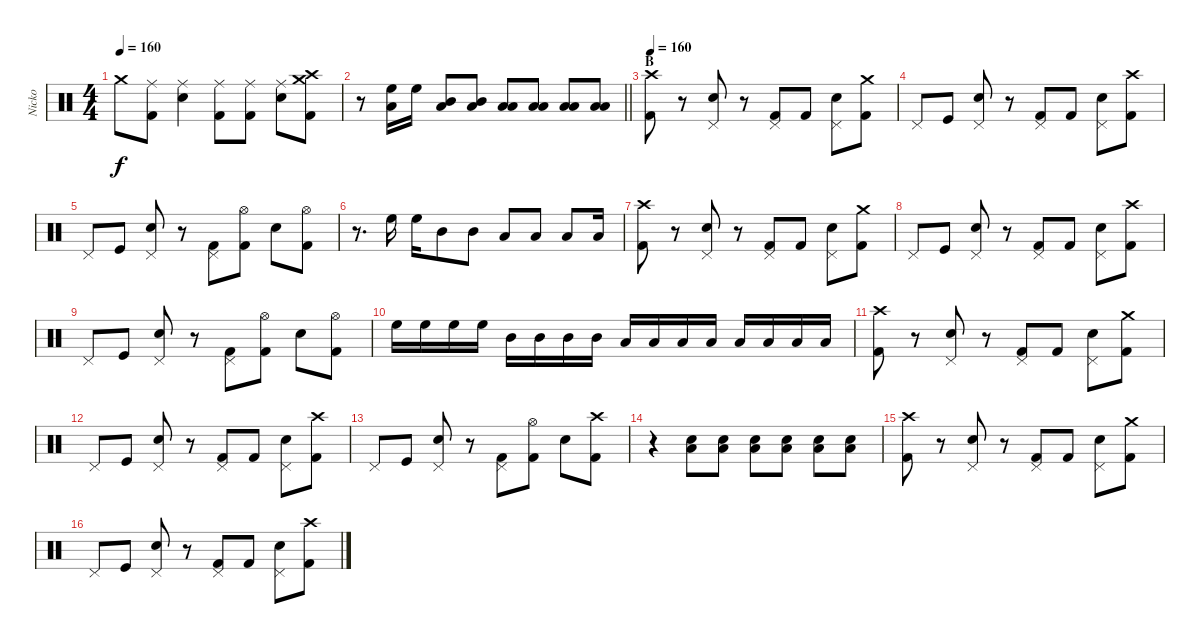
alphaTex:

\track ("Nicko" "Nicko") {instrument percussion}
\staff {score}
\articulation defaults
\ts (4 4)
\tempo 160
\clef neutral
\ks c "Crash medium (hit)".8{dy f}
("Ride (middle)" "Kick (hit) 2").8 ("Ride (middle)" "Snare (hit) 2").4 ("Ride (middle)" "Kick (hit) 2").8 ("Ride (middle)" "Kick (hit) 2").8 ("Ride (middle)" "Snare (hit) 2").8 ("Crash high (hit)" "Crash medium (hit)" "Kick (hit) 2").8 |
\barLineRight lightlight
r.8 ("High Floor Tom (hit)" "Low Floor Tom (hit)").16 "High Floor Tom (hit)".16 ("Mid Tom (hit)" "Low Floor Tom (hit)").8 ("Mid Tom (hit)" "Low Floor Tom (hit)").8 ("Low Tom (hit)" "Low Floor Tom (hit)").8 ("Low Tom (hit)" "Low Floor Tom (hit)").8 ("Low Floor Tom (hit)" "Low Floor Tom (hit)").8 ("Low Floor Tom (hit)" "Low Floor Tom (hit)").8 |
\section ("" "B")
\tempo 160
("Crash high (hit)" "Kick (hit) 2").8 r.8 ("Pedal Hi-Hat (hit)" "Snare (hit) 2").8 r.8 ("Pedal Hi-Hat (hit)" "Kick (hit) 2").8 "Kick (hit) 2".8 ("Pedal Hi-Hat (hit)" "Snare (hit) 2").8 ("Crash medium (hit)" "Kick (hit) 2").8 |
"Pedal Hi-Hat (hit)".8 "Kick (hit)".8 ("Pedal Hi-Hat (hit)" "Snare (hit) 2").8 r.8 ("Pedal Hi-Hat (hit)" "Kick (hit) 2").8 "Kick (hit) 2".8 ("Pedal Hi-Hat (hit)" "Snare (hit) 2").8 ("Crash high (hit)" "Kick (hit) 2").8 |
"Pedal Hi-Hat (hit)".8 "Kick (hit)".8 ("Pedal Hi-Hat (hit)" "Snare (hit) 2").8 r.8 ("Pedal Hi-Hat (hit)" "Kick (hit) 2").8 ("Hi-Hat (open)" "Kick (hit) 2").8 "Snare (hit) 2".8 ("Hi-Hat (open)" "Kick (hit) 2").8 |
r.8{d} "High Floor Tom (hit)".16 "High Floor Tom (hit)".16 "Mid Tom (hit)".8 "Mid Tom (hit)".8 "Low Tom (hit)".8 "Low Tom (hit)".8 "Low Floor Tom (hit)".8 "Low Floor Tom (hit)".16 |
("Crash high (hit)" "Kick (hit) 2").8 r.8 ("Pedal Hi-Hat (hit)" "Snare (hit) 2").8 r.8 ("Pedal Hi-Hat (hit)" "Kick (hit) 2").8 "Kick (hit) 2".8 ("Pedal Hi-Hat (hit)" "Snare (hit) 2").8 ("Crash medium (hit)" "Kick (hit) 2").8 |
"Pedal Hi-Hat (hit)".8 "Kick (hit)".8 ("Pedal Hi-Hat (hit)" "Snare (hit) 2").8 r.8 ("Pedal Hi-Hat (hit)" "Kick (hit) 2").8 "Kick (hit) 2".8 ("Pedal Hi-Hat (hit)" "Snare (hit) 2").8 ("Crash high (hit)" "Kick (hit) 2").8 |
"Pedal Hi-Hat (hit)".8 "Kick (hit)".8 ("Pedal Hi-Hat (hit)" "Snare (hit) 2").8 r.8 ("Pedal Hi-Hat (hit)" "Kick (hit) 2").8 ("Hi-Hat (open)" "Kick (hit) 2").8 "Snare (hit) 2".8 ("Hi-Hat (open)" "Kick (hit) 2").8 |
"High Floor Tom (hit)".16 "High Floor Tom (hit)".16 "High Floor Tom (hit)".16 "High Floor Tom (hit)".16 "Mid Tom (hit)".16 "Mid Tom (hit)".16 "Mid Tom (hit)".16 "Mid Tom (hit)".16 "Low Tom (hit)".16 "Low Tom (hit)".16 "Low Tom (hit)".16 "Low Tom (hit)".16 "Low Floor Tom (hit)".16 "Low Floor Tom (hit)".16 "Low Floor Tom (hit)".16 "Low Floor Tom (hit)".16 |
("Crash high (hit)" "Kick (hit) 2").8 r.8 ("Pedal Hi-Hat (hit)" "Snare (hit) 2").8 r.8 ("Pedal Hi-Hat (hit)" "Kick (hit) 2").8 "Kick (hit) 2".8 ("Pedal Hi-Hat (hit)" "Snare (hit) 2").8 ("Crash medium (hit)" "Kick (hit) 2").8 |
"Pedal Hi-Hat (hit)".8 "Kick (hit)".8 ("Pedal Hi-Hat (hit)" "Snare (hit) 2").8 r.8 ("Pedal Hi-Hat (hit)" "Kick (hit) 2").8 "Kick (hit) 2".8 ("Pedal Hi-Hat (hit)" "Snare (hit) 2").8 ("Crash high (hit)" "Kick (hit) 2").8 |
"Pedal Hi-Hat (hit)".8 "Kick (hit)".8 ("Pedal Hi-Hat (hit)" "Snare (hit) 2").8 r.8 ("Pedal Hi-Hat (hit)" "Kick (hit) 2").8 ("Hi-Hat (open)" "Kick (hit) 2").8 "Snare (hit) 2".8 ("Crash high (hit)" "Kick (hit) 2").8 |
r.4 ("Snare (hit) 2" "Low Floor Tom (hit)").8 ("Snare (hit) 2" "Low Floor Tom (hit)").8 ("Snare (hit) 2" "Low Floor Tom (hit)").8 ("Snare (hit) 2" "Low Floor Tom (hit)").8 ("Snare (hit) 2" "Low Floor Tom (hit)").8 ("Snare (hit) 2" "Low Floor Tom (hit)").8 |
("Crash high (hit)" "Kick (hit) 2").8 r.8 ("Pedal Hi-Hat (hit)" "Snare (hit) 2").8 r.8 ("Pedal Hi-Hat (hit)" "Kick (hit) 2").8 "Kick (hit) 2".8 ("Pedal Hi-Hat (hit)" "Snare (hit) 2").8 ("Crash medium (hit)" "Kick (hit) 2").8 |
"Pedal Hi-Hat (hit)".8 "Kick (hit)".8 ("Pedal Hi-Hat (hit)" "Snare (hit) 2").8 r.8 ("Pedal Hi-Hat (hit)" "Kick (hit) 2").8 "Kick (hit) 2".8 ("Pedal Hi-Hat (hit)" "Snare (hit) 2").8 ("Crash high (hit)" "Kick (hit) 2").8
